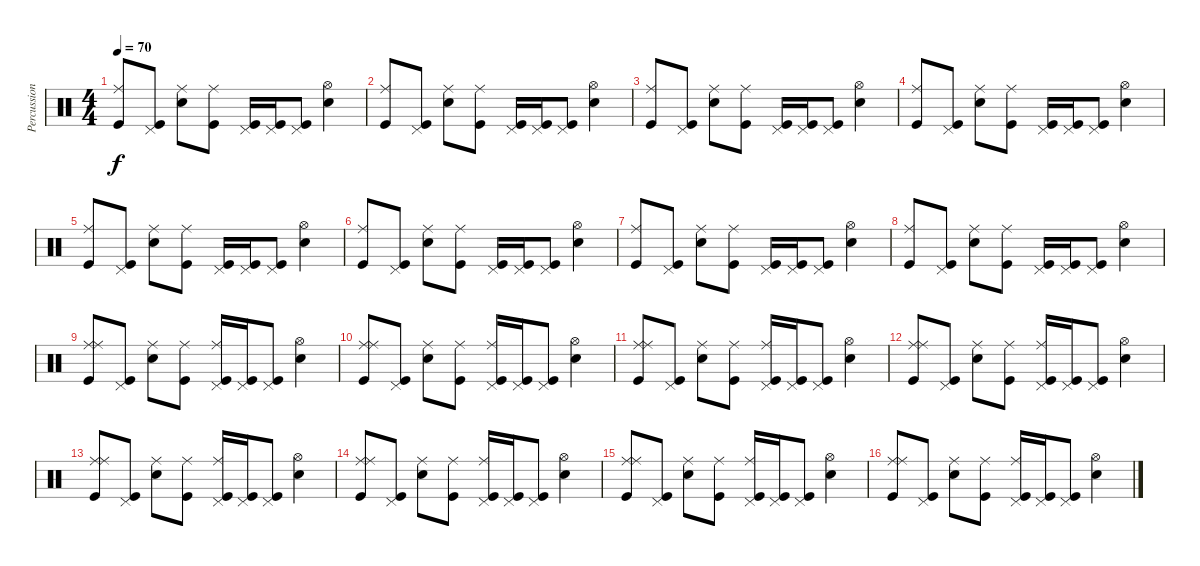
\track ("Percussion" "Percussion") {instrument percussion}
\staff {score}
\articulation defaults
\ts (4 4)
\tempo 70
\clef neutral
\ks c
("Kick (hit)" "Ride (middle)").8{dy f} ("Kick (hit)" "Pedal Hi-Hat (hit)").8 ("Hand Clap (hit)" "Ride (middle)").8 ("Kick (hit)" "Ride (middle)").8 ("Kick (hit)" "Pedal Hi-Hat (hit)").16 ("Kick (hit)" "Pedal Hi-Hat (hit)").16 ("Kick (hit)" "Pedal Hi-Hat (hit)").8 ("Hand Clap (hit)" "Hi-Hat (open)").4 |
("Kick (hit)" "Ride (middle)").8 ("Kick (hit)" "Pedal Hi-Hat (hit)").8 ("Hand Clap (hit)" "Ride (middle)").8 ("Kick (hit)" "Ride (middle)").8 ("Kick (hit)" "Pedal Hi-Hat (hit)").16 ("Kick (hit)" "Pedal Hi-Hat (hit)").16 ("Kick (hit)" "Pedal Hi-Hat (hit)").8 ("Hand Clap (hit)" "Hi-Hat (open)").4 |
("Kick (hit)" "Ride (middle)").8 ("Kick (hit)" "Pedal Hi-Hat (hit)").8 ("Hand Clap (hit)" "Ride (middle)").8 ("Kick (hit)" "Ride (middle)").8 ("Kick (hit)" "Pedal Hi-Hat (hit)").16 ("Kick (hit)" "Pedal Hi-Hat (hit)").16 ("Kick (hit)" "Pedal Hi-Hat (hit)").8 ("Hand Clap (hit)" "Hi-Hat (open)").4 |
("Kick (hit)" "Ride (middle)").8 ("Kick (hit)" "Pedal Hi-Hat (hit)").8 ("Hand Clap (hit)" "Ride (middle)").8 ("Kick (hit)" "Ride (middle)").8 ("Kick (hit)" "Pedal Hi-Hat (hit)").16 ("Kick (hit)" "Pedal Hi-Hat (hit)").16 ("Kick (hit)" "Pedal Hi-Hat (hit)").8 ("Hand Clap (hit)" "Hi-Hat (open)").4 |
("Kick (hit)" "Ride (middle)").8 ("Kick (hit)" "Pedal Hi-Hat (hit)").8 ("Hand Clap (hit)" "Ride (middle)").8 ("Kick (hit)" "Ride (middle)").8 ("Kick (hit)" "Pedal Hi-Hat (hit)").16 ("Kick (hit)" "Pedal Hi-Hat (hit)").16 ("Kick (hit)" "Pedal Hi-Hat (hit)").8 ("Hand Clap (hit)" "Hi-Hat (open)").4 |
("Kick (hit)" "Ride (middle)").8 ("Kick (hit)" "Pedal Hi-Hat (hit)").8 ("Hand Clap (hit)" "Ride (middle)").8 ("Kick (hit)" "Ride (middle)").8 ("Kick (hit)" "Pedal Hi-Hat (hit)").16 ("Kick (hit)" "Pedal Hi-Hat (hit)").16 ("Kick (hit)" "Pedal Hi-Hat (hit)").8 ("Hand Clap (hit)" "Hi-Hat (open)").4 |
("Kick (hit)" "Ride (middle)").8 ("Kick (hit)" "Pedal Hi-Hat (hit)").8 ("Hand Clap (hit)" "Ride (middle)").8 ("Kick (hit)" "Ride (middle)").8 ("Kick (hit)" "Pedal Hi-Hat (hit)").16 ("Kick (hit)" "Pedal Hi-Hat (hit)").16 ("Kick (hit)" "Pedal Hi-Hat (hit)").8 ("Hand Clap (hit)" "Hi-Hat (open)").4 |
("Kick (hit)" "Ride (middle)").8 ("Kick (hit)" "Pedal Hi-Hat (hit)").8 ("Hand Clap (hit)" "Ride (middle)").8 ("Kick (hit)" "Ride (middle)").8 ("Kick (hit)" "Pedal Hi-Hat (hit)").16 ("Kick (hit)" "Pedal Hi-Hat (hit)").16 ("Kick (hit)" "Pedal Hi-Hat (hit)").8 ("Hand Clap (hit)" "Hi-Hat (open)").4 |
("Kick (hit)" "Ride (middle)" "Ride (middle)").8 ("Kick (hit)" "Pedal Hi-Hat (hit)").8 ("Hand Clap (hit)" "Ride (middle)").8 ("Kick (hit)" "Ride (middle)").8 ("Kick (hit)" "Pedal Hi-Hat (hit)" "Ride (middle)").16 ("Kick (hit)" "Pedal Hi-Hat (hit)").16 ("Kick (hit)" "Pedal Hi-Hat (hit)").8 ("Hand Clap (hit)" "Hi-Hat (open)").4 |
("Kick (hit)" "Ride (middle)" "Ride (middle)").8 ("Kick (hit)" "Pedal Hi-Hat (hit)").8 ("Hand Clap (hit)" "Ride (middle)").8 ("Kick (hit)" "Ride (middle)").8 ("Kick (hit)" "Pedal Hi-Hat (hit)" "Ride (middle)").16 ("Kick (hit)" "Pedal Hi-Hat (hit)").16 ("Kick (hit)" "Pedal Hi-Hat (hit)").8 ("Hand Clap (hit)" "Hi-Hat (open)").4 |
("Kick (hit)" "Ride (middle)" "Ride (middle)").8 ("Kick (hit)" "Pedal Hi-Hat (hit)").8 ("Hand Clap (hit)" "Ride (middle)").8 ("Kick (hit)" "Ride (middle)").8 ("Kick (hit)" "Pedal Hi-Hat (hit)" "Ride (middle)").16 ("Kick (hit)" "Pedal Hi-Hat (hit)").16 ("Kick (hit)" "Pedal Hi-Hat (hit)").8 ("Hand Clap (hit)" "Hi-Hat (open)").4 |
("Kick (hit)" "Ride (middle)" "Ride (middle)").8 ("Kick (hit)" "Pedal Hi-Hat (hit)").8 ("Hand Clap (hit)" "Ride (middle)").8 ("Kick (hit)" "Ride (middle)").8 ("Kick (hit)" "Pedal Hi-Hat (hit)" "Ride (middle)").16 ("Kick (hit)" "Pedal Hi-Hat (hit)").16 ("Kick (hit)" "Pedal Hi-Hat (hit)").8 ("Hand Clap (hit)" "Hi-Hat (open)").4 |
("Kick (hit)" "Ride (middle)" "Ride (middle)").8 ("Kick (hit)" "Pedal Hi-Hat (hit)").8 ("Hand Clap (hit)" "Ride (middle)").8 ("Kick (hit)" "Ride (middle)").8 ("Kick (hit)" "Pedal Hi-Hat (hit)" "Ride (middle)").16 ("Kick (hit)" "Pedal Hi-Hat (hit)").16 ("Kick (hit)" "Pedal Hi-Hat (hit)").8 ("Hand Clap (hit)" "Hi-Hat (open)").4 |
("Kick (hit)" "Ride (middle)" "Ride (middle)").8 ("Kick (hit)" "Pedal Hi-Hat (hit)").8 ("Hand Clap (hit)" "Ride (middle)").8 ("Kick (hit)" "Ride (middle)").8 ("Kick (hit)" "Pedal Hi-Hat (hit)" "Ride (middle)").16 ("Kick (hit)" "Pedal Hi-Hat (hit)").16 ("Kick (hit)" "Pedal Hi-Hat (hit)").8 ("Hand Clap (hit)" "Hi-Hat (open)").4 |
("Kick (hit)" "Ride (middle)" "Ride (middle)").8 ("Kick (hit)" "Pedal Hi-Hat (hit)").8 ("Hand Clap (hit)" "Ride (middle)").8 ("Kick (hit)" "Ride (middle)").8 ("Kick (hit)" "Pedal Hi-Hat (hit)" "Ride (middle)").16 ("Kick (hit)" "Pedal Hi-Hat (hit)").16 ("Kick (hit)" "Pedal Hi-Hat (hit)").8 ("Hand Clap (hit)" "Hi-Hat (open)").4 |
("Kick (hit)" "Ride (middle)" "Ride (middle)").8 ("Kick (hit)" "Pedal Hi-Hat (hit)").8 ("Hand Clap (hit)" "Ride (middle)").8 ("Kick (hit)" "Ride (middle)").8 ("Kick (hit)" "Pedal Hi-Hat (hit)" "Ride (middle)").16 ("Kick (hit)" "Pedal Hi-Hat (hit)").16 ("Kick (hit)" "Pedal Hi-Hat (hit)").8 ("Hand Clap (hit)" "Hi-Hat (open)").4
